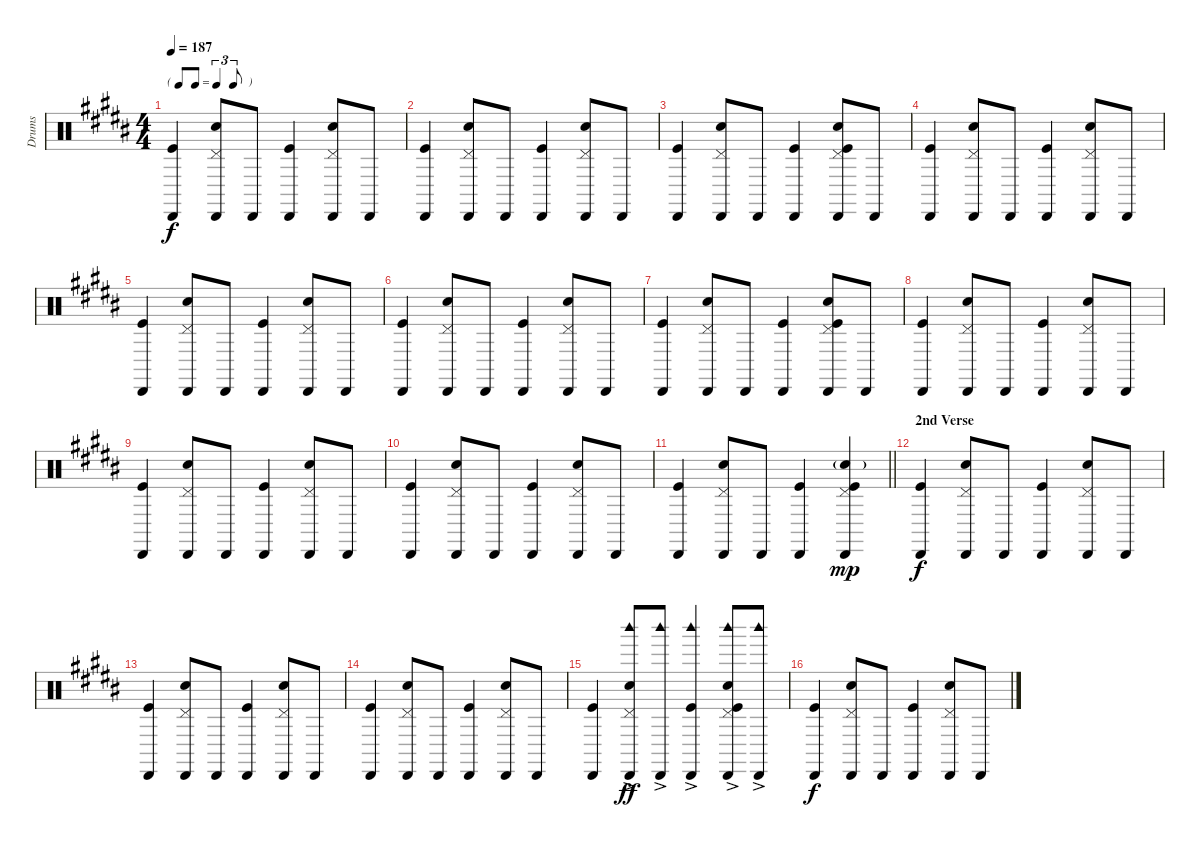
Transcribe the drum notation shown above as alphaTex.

\track ("Drums" "Drums") {instrument percussion}
\staff {score}
\articulation defaults
\ts (4 4)
\tf triplet8th
\tempo 187
\clef neutral
\ks b
("Cabasa (hit)" "Kick (hit)").4{dy f} ("Pedal Hi-Hat (hit)" "Cabasa (hit)" "Snare (hit) 2").8 "Cabasa (hit)".8 ("Cabasa (hit)" "Kick (hit)").4 ("Pedal Hi-Hat (hit)" "Cabasa (hit)" "Snare (hit) 2").8 "Cabasa (hit)".8 |
("Cabasa (hit)" "Kick (hit)").4 ("Pedal Hi-Hat (hit)" "Cabasa (hit)" "Snare (hit) 2").8 "Cabasa (hit)".8 ("Cabasa (hit)" "Kick (hit)").4 ("Pedal Hi-Hat (hit)" "Cabasa (hit)" "Snare (hit) 2").8 "Cabasa (hit)".8 |
("Cabasa (hit)" "Kick (hit)").4 ("Pedal Hi-Hat (hit)" "Cabasa (hit)" "Snare (hit) 2").8 "Cabasa (hit)".8 ("Cabasa (hit)" "Kick (hit)").4 ("Pedal Hi-Hat (hit)" "Cabasa (hit)" "Snare (hit) 2" "Kick (hit)").8 "Cabasa (hit)".8 |
("Cabasa (hit)" "Kick (hit)").4 ("Pedal Hi-Hat (hit)" "Cabasa (hit)" "Snare (hit) 2").8 "Cabasa (hit)".8 ("Cabasa (hit)" "Kick (hit)").4 ("Pedal Hi-Hat (hit)" "Cabasa (hit)" "Snare (hit) 2").8 "Cabasa (hit)".8 |
("Cabasa (hit)" "Kick (hit)").4 ("Pedal Hi-Hat (hit)" "Cabasa (hit)" "Snare (hit) 2").8 "Cabasa (hit)".8 ("Cabasa (hit)" "Kick (hit)").4 ("Pedal Hi-Hat (hit)" "Cabasa (hit)" "Snare (hit) 2").8 "Cabasa (hit)".8 |
("Cabasa (hit)" "Kick (hit)").4 ("Pedal Hi-Hat (hit)" "Cabasa (hit)" "Snare (hit) 2").8 "Cabasa (hit)".8 ("Cabasa (hit)" "Kick (hit)").4 ("Pedal Hi-Hat (hit)" "Cabasa (hit)" "Snare (hit) 2").8 "Cabasa (hit)".8 |
("Cabasa (hit)" "Kick (hit)").4 ("Pedal Hi-Hat (hit)" "Cabasa (hit)" "Snare (hit) 2").8 "Cabasa (hit)".8 ("Cabasa (hit)" "Kick (hit)").4 ("Pedal Hi-Hat (hit)" "Cabasa (hit)" "Snare (hit) 2" "Kick (hit)").8 "Cabasa (hit)".8 |
("Cabasa (hit)" "Kick (hit)").4 ("Pedal Hi-Hat (hit)" "Cabasa (hit)" "Snare (hit) 2").8 "Cabasa (hit)".8 ("Cabasa (hit)" "Kick (hit)").4 ("Pedal Hi-Hat (hit)" "Cabasa (hit)" "Snare (hit) 2").8 "Cabasa (hit)".8 |
("Cabasa (hit)" "Kick (hit)").4 ("Pedal Hi-Hat (hit)" "Cabasa (hit)" "Snare (hit) 2").8 "Cabasa (hit)".8 ("Cabasa (hit)" "Kick (hit)").4 ("Pedal Hi-Hat (hit)" "Cabasa (hit)" "Snare (hit) 2").8 "Cabasa (hit)".8 |
("Cabasa (hit)" "Kick (hit)").4 ("Pedal Hi-Hat (hit)" "Cabasa (hit)" "Snare (hit) 2").8 "Cabasa (hit)".8 ("Cabasa (hit)" "Kick (hit)").4 ("Pedal Hi-Hat (hit)" "Cabasa (hit)" "Snare (hit) 2").8 "Cabasa (hit)".8 |
\barLineRight lightlight
("Cabasa (hit)" "Kick (hit)").4 ("Pedal Hi-Hat (hit)" "Cabasa (hit)" "Snare (hit) 2").8 "Cabasa (hit)".8 ("Cabasa (hit)" "Kick (hit)").4 ("Pedal Hi-Hat (hit)" "Cabasa (hit)" "Snare (hit) 2"{g} "Kick (hit)").4{dy mp} |
\section ("" "2nd Verse")
("Cabasa (hit)" "Kick (hit)").4{dy f} ("Pedal Hi-Hat (hit)" "Cabasa (hit)" "Snare (hit) 2").8 "Cabasa (hit)".8 ("Cabasa (hit)" "Kick (hit)").4 ("Pedal Hi-Hat (hit)" "Cabasa (hit)" "Snare (hit) 2").8 "Cabasa (hit)".8 |
("Cabasa (hit)" "Kick (hit)").4 ("Pedal Hi-Hat (hit)" "Cabasa (hit)" "Snare (hit) 2").8 "Cabasa (hit)".8 ("Cabasa (hit)" "Kick (hit)").4 ("Pedal Hi-Hat (hit)" "Cabasa (hit)" "Snare (hit) 2").8 "Cabasa (hit)".8 |
("Cabasa (hit)" "Kick (hit)").4 ("Pedal Hi-Hat (hit)" "Cabasa (hit)" "Snare (hit) 2").8 "Cabasa (hit)".8 ("Cabasa (hit)" "Kick (hit)").4 ("Pedal Hi-Hat (hit)" "Cabasa (hit)" "Snare (hit) 2").8 "Cabasa (hit)".8 |
("Cabasa (hit)" "Kick (hit)").4 ("Pedal Hi-Hat (hit)" "Cabasa (hit)" "Snare (hit) 2" "Woodblock high (hit)"{ac}).8{dy ff} ("Cabasa (hit)" "Woodblock high (hit)"{ac}).8 ("Cabasa (hit)" "Woodblock high (hit)"{ac} "Kick (hit)").4 ("Pedal Hi-Hat (hit)" "Cabasa (hit)" "Snare (hit) 2" "Woodblock high (hit)"{ac} "Kick (hit)").8 ("Cabasa (hit)" "Woodblock high (hit)"{ac}).8 |
("Cabasa (hit)" "Kick (hit)").4{dy f} ("Pedal Hi-Hat (hit)" "Cabasa (hit)" "Snare (hit) 2").8 "Cabasa (hit)".8 ("Cabasa (hit)" "Kick (hit)").4 ("Pedal Hi-Hat (hit)" "Cabasa (hit)" "Snare (hit) 2").8 "Cabasa (hit)".8
